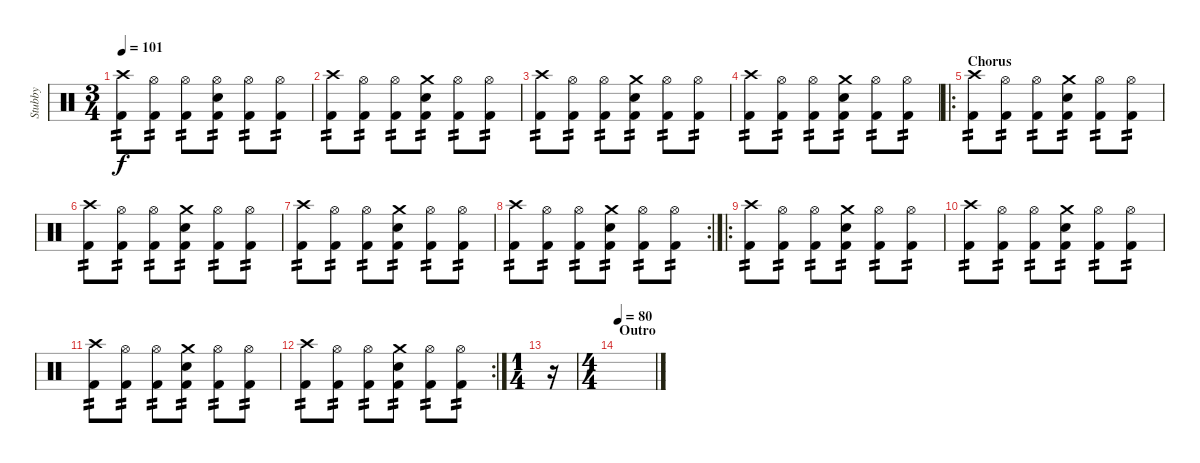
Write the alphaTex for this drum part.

\track ("Stubby" "Stubby") {instrument percussion}
\staff {score}
\articulation defaults
\ts (3 4)
\tempo 101
\clef neutral
\ks c
("Crash high (hit)" "Kick (hit) 2").8{tp 2 dy f} ("Hi-Hat (open)" "Kick (hit) 2").8{tp 2} ("Hi-Hat (open)" "Kick (hit) 2").8{tp 2} ("Hi-Hat (open)" "Electric Snare (hit)" "Kick (hit) 2").8{tp 2} ("Hi-Hat (open)" "Kick (hit) 2").8{tp 2} ("Hi-Hat (open)" "Kick (hit) 2").8{tp 2} |
("Crash high (hit)" "Kick (hit) 2").8{tp 2} ("Hi-Hat (open)" "Kick (hit) 2").8{tp 2} ("Hi-Hat (open)" "Kick (hit) 2").8{tp 2} ("Crash medium (hit)" "Electric Snare (hit)" "Kick (hit) 2").8{tp 2} ("Hi-Hat (open)" "Kick (hit) 2").8{tp 2} ("Hi-Hat (open)" "Kick (hit) 2").8{tp 2} |
("Crash high (hit)" "Kick (hit) 2").8{tp 2} ("Hi-Hat (open)" "Kick (hit) 2").8{tp 2} ("Hi-Hat (open)" "Kick (hit) 2").8{tp 2} ("Crash medium (hit)" "Electric Snare (hit)" "Kick (hit) 2").8{tp 2} ("Hi-Hat (open)" "Kick (hit) 2").8{tp 2} ("Hi-Hat (open)" "Kick (hit) 2").8{tp 2} |
("Crash high (hit)" "Kick (hit) 2").8{tp 2} ("Hi-Hat (open)" "Kick (hit) 2").8{tp 2} ("Hi-Hat (open)" "Kick (hit) 2").8{tp 2} ("Crash medium (hit)" "Electric Snare (hit)" "Kick (hit) 2").8{tp 2} ("Hi-Hat (open)" "Kick (hit) 2").8{tp 2} ("Hi-Hat (open)" "Kick (hit) 2").8{tp 2} |
\ro
\section ("" "Chorus")
("Crash high (hit)" "Kick (hit) 2").8{tp 2} ("Hi-Hat (open)" "Kick (hit) 2").8{tp 2} ("Hi-Hat (open)" "Kick (hit) 2").8{tp 2} ("Crash medium (hit)" "Electric Snare (hit)" "Kick (hit) 2").8{tp 2} ("Hi-Hat (open)" "Kick (hit) 2").8{tp 2} ("Hi-Hat (open)" "Kick (hit) 2").8{tp 2} |
("Crash high (hit)" "Kick (hit) 2").8{tp 2} ("Hi-Hat (open)" "Kick (hit) 2").8{tp 2} ("Hi-Hat (open)" "Kick (hit) 2").8{tp 2} ("Crash medium (hit)" "Electric Snare (hit)" "Kick (hit) 2").8{tp 2} ("Hi-Hat (open)" "Kick (hit) 2").8{tp 2} ("Hi-Hat (open)" "Kick (hit) 2").8{tp 2} |
\section ("" "")
("Crash high (hit)" "Kick (hit) 2").8{tp 2} ("Hi-Hat (open)" "Kick (hit) 2").8{tp 2} ("Hi-Hat (open)" "Kick (hit) 2").8{tp 2} ("Crash medium (hit)" "Electric Snare (hit)" "Kick (hit) 2").8{tp 2} ("Hi-Hat (open)" "Kick (hit) 2").8{tp 2} ("Hi-Hat (open)" "Kick (hit) 2").8{tp 2} |
\rc 2
("Crash high (hit)" "Kick (hit) 2").8{tp 2} ("Hi-Hat (open)" "Kick (hit) 2").8{tp 2} ("Hi-Hat (open)" "Kick (hit) 2").8{tp 2} ("Crash medium (hit)" "Electric Snare (hit)" "Kick (hit) 2").8{tp 2} ("Hi-Hat (open)" "Kick (hit) 2").8{tp 2} ("Hi-Hat (open)" "Kick (hit) 2").8{tp 2} |
\ro
("Crash high (hit)" "Kick (hit) 2").8{tp 2} ("Hi-Hat (open)" "Kick (hit) 2").8{tp 2} ("Hi-Hat (open)" "Kick (hit) 2").8{tp 2} ("Crash medium (hit)" "Electric Snare (hit)" "Kick (hit) 2").8{tp 2} ("Hi-Hat (open)" "Kick (hit) 2").8{tp 2} ("Hi-Hat (open)" "Kick (hit) 2").8{tp 2} |
("Crash high (hit)" "Kick (hit) 2").8{tp 2} ("Hi-Hat (open)" "Kick (hit) 2").8{tp 2} ("Hi-Hat (open)" "Kick (hit) 2").8{tp 2} ("Crash medium (hit)" "Electric Snare (hit)" "Kick (hit) 2").8{tp 2} ("Hi-Hat (open)" "Kick (hit) 2").8{tp 2} ("Hi-Hat (open)" "Kick (hit) 2").8{tp 2} |
("Crash high (hit)" "Kick (hit) 2").8{tp 2} ("Hi-Hat (open)" "Kick (hit) 2").8{tp 2} ("Hi-Hat (open)" "Kick (hit) 2").8{tp 2} ("Crash medium (hit)" "Electric Snare (hit)" "Kick (hit) 2").8{tp 2} ("Hi-Hat (open)" "Kick (hit) 2").8{tp 2} ("Hi-Hat (open)" "Kick (hit) 2").8{tp 2} |
\rc 2
("Crash high (hit)" "Kick (hit) 2").8{tp 2} ("Hi-Hat (open)" "Kick (hit) 2").8{tp 2} ("Hi-Hat (open)" "Kick (hit) 2").8{tp 2} ("Crash medium (hit)" "Electric Snare (hit)" "Kick (hit) 2").8{tp 2} ("Hi-Hat (open)" "Kick (hit) 2").8{tp 2} ("Hi-Hat (open)" "Kick (hit) 2").8{tp 2} |
\ts (1 4)
r.16 |
\ts (4 4)
\section ("" "Outro")
\tempo 80
